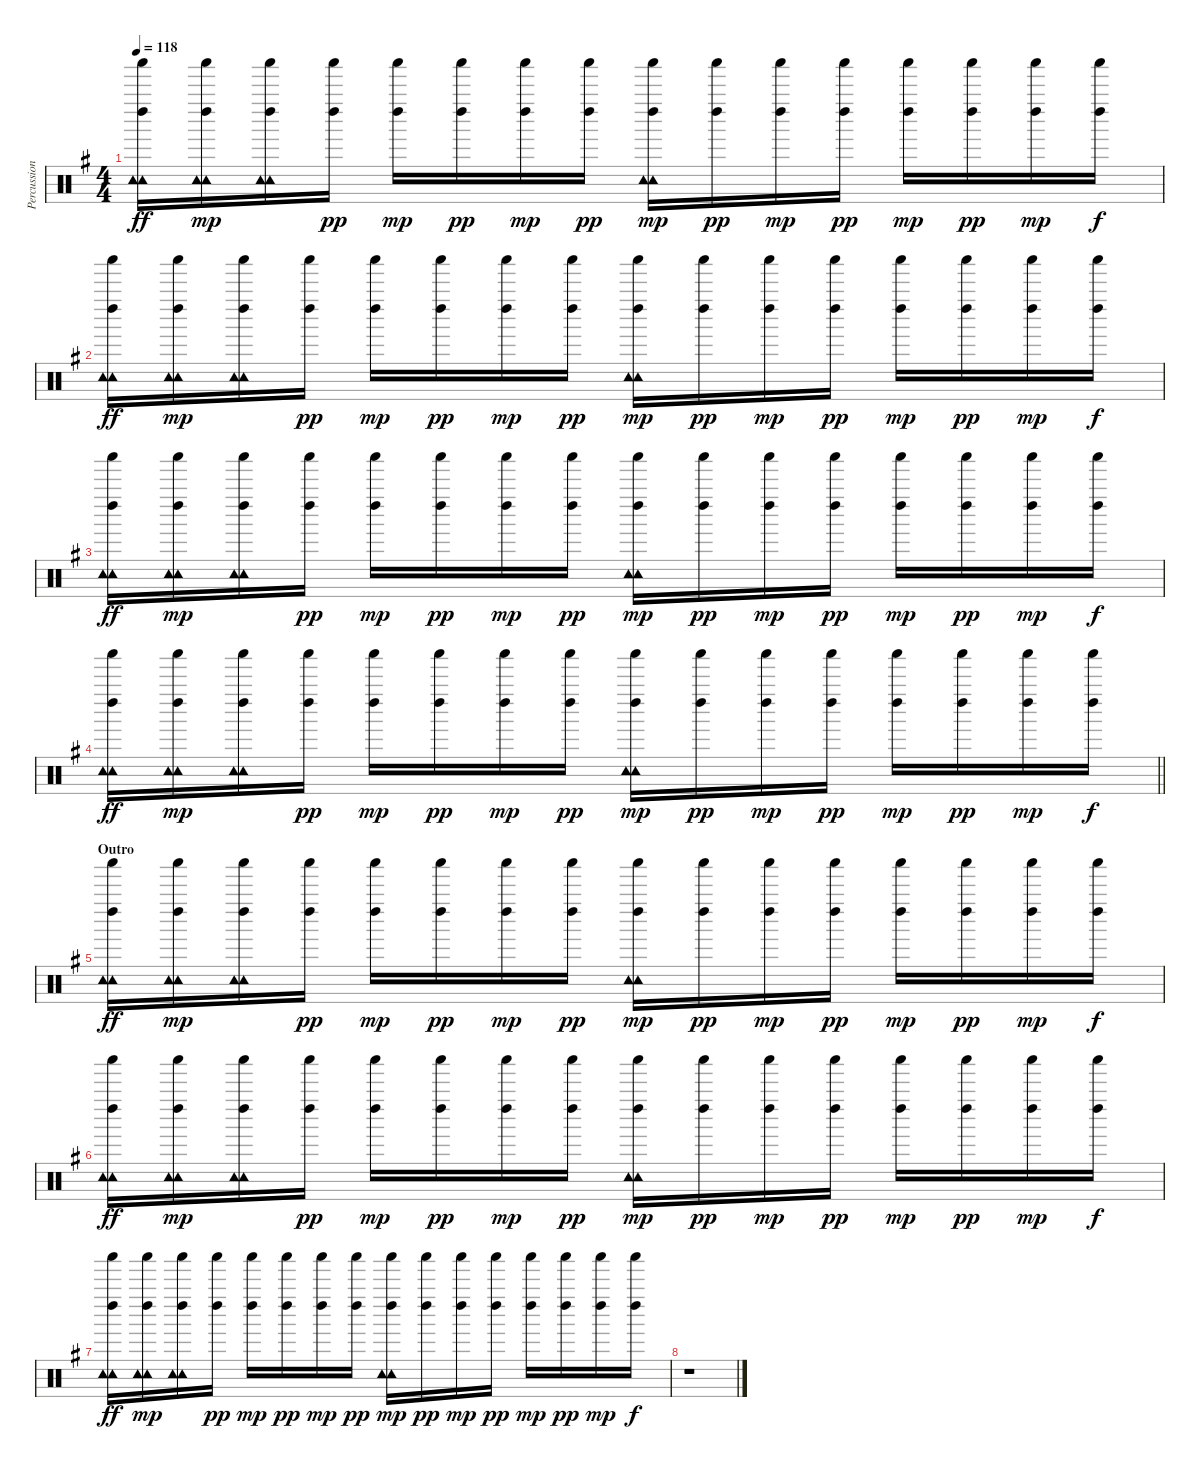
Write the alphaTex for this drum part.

\track ("Percussion" "Percussion") {instrument percussion}
\staff {score}
\articulation defaults
\ts (4 4)
\tempo 118
\clef neutral
\ks g
("Tambourine (hit)" "Tambourine (hit)" "Left Maraca (hit)" "Shaker (hit)").16{dy ff} ("Tambourine (hit)" "Tambourine (hit)" "Left Maraca (hit)" "Shaker (hit)").16{dy mp} ("Tambourine (hit)" "Tambourine (hit)" "Left Maraca (hit)" "Shaker (hit)").16 ("Left Maraca (hit)" "Shaker (hit)").16{dy pp} ("Left Maraca (hit)" "Shaker (hit)").16{dy mp} ("Left Maraca (hit)" "Shaker (hit)").16{dy pp} ("Left Maraca (hit)" "Shaker (hit)").16{dy mp} ("Left Maraca (hit)" "Shaker (hit)").16{dy pp} ("Tambourine (hit)" "Tambourine (hit)" "Left Maraca (hit)" "Shaker (hit)").16{dy mp} ("Left Maraca (hit)" "Shaker (hit)").16{dy pp} ("Left Maraca (hit)" "Shaker (hit)").16{dy mp} ("Left Maraca (hit)" "Shaker (hit)").16{dy pp} ("Left Maraca (hit)" "Shaker (hit)").16{dy mp} ("Left Maraca (hit)" "Shaker (hit)").16{dy pp} ("Left Maraca (hit)" "Shaker (hit)").16{dy mp} ("Left Maraca (hit)" "Shaker (hit)").16{dy f} |
("Tambourine (hit)" "Tambourine (hit)" "Left Maraca (hit)" "Shaker (hit)").16{dy ff} ("Tambourine (hit)" "Tambourine (hit)" "Left Maraca (hit)" "Shaker (hit)").16{dy mp} ("Tambourine (hit)" "Tambourine (hit)" "Left Maraca (hit)" "Shaker (hit)").16 ("Left Maraca (hit)" "Shaker (hit)").16{dy pp} ("Left Maraca (hit)" "Shaker (hit)").16{dy mp} ("Left Maraca (hit)" "Shaker (hit)").16{dy pp} ("Left Maraca (hit)" "Shaker (hit)").16{dy mp} ("Left Maraca (hit)" "Shaker (hit)").16{dy pp} ("Tambourine (hit)" "Tambourine (hit)" "Left Maraca (hit)" "Shaker (hit)").16{dy mp} ("Left Maraca (hit)" "Shaker (hit)").16{dy pp} ("Left Maraca (hit)" "Shaker (hit)").16{dy mp} ("Left Maraca (hit)" "Shaker (hit)").16{dy pp} ("Left Maraca (hit)" "Shaker (hit)").16{dy mp} ("Left Maraca (hit)" "Shaker (hit)").16{dy pp} ("Left Maraca (hit)" "Shaker (hit)").16{dy mp} ("Left Maraca (hit)" "Shaker (hit)").16{dy f} |
("Tambourine (hit)" "Tambourine (hit)" "Left Maraca (hit)" "Shaker (hit)").16{dy ff} ("Tambourine (hit)" "Tambourine (hit)" "Left Maraca (hit)" "Shaker (hit)").16{dy mp} ("Tambourine (hit)" "Tambourine (hit)" "Left Maraca (hit)" "Shaker (hit)").16 ("Left Maraca (hit)" "Shaker (hit)").16{dy pp} ("Left Maraca (hit)" "Shaker (hit)").16{dy mp} ("Left Maraca (hit)" "Shaker (hit)").16{dy pp} ("Left Maraca (hit)" "Shaker (hit)").16{dy mp} ("Left Maraca (hit)" "Shaker (hit)").16{dy pp} ("Tambourine (hit)" "Tambourine (hit)" "Left Maraca (hit)" "Shaker (hit)").16{dy mp} ("Left Maraca (hit)" "Shaker (hit)").16{dy pp} ("Left Maraca (hit)" "Shaker (hit)").16{dy mp} ("Left Maraca (hit)" "Shaker (hit)").16{dy pp} ("Left Maraca (hit)" "Shaker (hit)").16{dy mp} ("Left Maraca (hit)" "Shaker (hit)").16{dy pp} ("Left Maraca (hit)" "Shaker (hit)").16{dy mp} ("Left Maraca (hit)" "Shaker (hit)").16{dy f} |
\barLineRight lightlight
("Tambourine (hit)" "Tambourine (hit)" "Left Maraca (hit)" "Shaker (hit)").16{dy ff} ("Tambourine (hit)" "Tambourine (hit)" "Left Maraca (hit)" "Shaker (hit)").16{dy mp} ("Tambourine (hit)" "Tambourine (hit)" "Left Maraca (hit)" "Shaker (hit)").16 ("Left Maraca (hit)" "Shaker (hit)").16{dy pp} ("Left Maraca (hit)" "Shaker (hit)").16{dy mp} ("Left Maraca (hit)" "Shaker (hit)").16{dy pp} ("Left Maraca (hit)" "Shaker (hit)").16{dy mp} ("Left Maraca (hit)" "Shaker (hit)").16{dy pp} ("Tambourine (hit)" "Tambourine (hit)" "Left Maraca (hit)" "Shaker (hit)").16{dy mp} ("Left Maraca (hit)" "Shaker (hit)").16{dy pp} ("Left Maraca (hit)" "Shaker (hit)").16{dy mp} ("Left Maraca (hit)" "Shaker (hit)").16{dy pp} ("Left Maraca (hit)" "Shaker (hit)").16{dy mp} ("Left Maraca (hit)" "Shaker (hit)").16{dy pp} ("Left Maraca (hit)" "Shaker (hit)").16{dy mp} ("Left Maraca (hit)" "Shaker (hit)").16{dy f} |
\section ("" "Outro")
("Tambourine (hit)" "Tambourine (hit)" "Left Maraca (hit)" "Shaker (hit)").16{dy ff} ("Tambourine (hit)" "Tambourine (hit)" "Left Maraca (hit)" "Shaker (hit)").16{dy mp} ("Tambourine (hit)" "Tambourine (hit)" "Left Maraca (hit)" "Shaker (hit)").16 ("Left Maraca (hit)" "Shaker (hit)").16{dy pp} ("Left Maraca (hit)" "Shaker (hit)").16{dy mp} ("Left Maraca (hit)" "Shaker (hit)").16{dy pp} ("Left Maraca (hit)" "Shaker (hit)").16{dy mp} ("Left Maraca (hit)" "Shaker (hit)").16{dy pp} ("Tambourine (hit)" "Tambourine (hit)" "Left Maraca (hit)" "Shaker (hit)").16{dy mp} ("Left Maraca (hit)" "Shaker (hit)").16{dy pp} ("Left Maraca (hit)" "Shaker (hit)").16{dy mp} ("Left Maraca (hit)" "Shaker (hit)").16{dy pp} ("Left Maraca (hit)" "Shaker (hit)").16{dy mp} ("Left Maraca (hit)" "Shaker (hit)").16{dy pp} ("Left Maraca (hit)" "Shaker (hit)").16{dy mp} ("Left Maraca (hit)" "Shaker (hit)").16{dy f} |
("Tambourine (hit)" "Tambourine (hit)" "Left Maraca (hit)" "Shaker (hit)").16{dy ff} ("Tambourine (hit)" "Tambourine (hit)" "Left Maraca (hit)" "Shaker (hit)").16{dy mp} ("Tambourine (hit)" "Tambourine (hit)" "Left Maraca (hit)" "Shaker (hit)").16 ("Left Maraca (hit)" "Shaker (hit)").16{dy pp} ("Left Maraca (hit)" "Shaker (hit)").16{dy mp} ("Left Maraca (hit)" "Shaker (hit)").16{dy pp} ("Left Maraca (hit)" "Shaker (hit)").16{dy mp} ("Left Maraca (hit)" "Shaker (hit)").16{dy pp} ("Tambourine (hit)" "Tambourine (hit)" "Left Maraca (hit)" "Shaker (hit)").16{dy mp} ("Left Maraca (hit)" "Shaker (hit)").16{dy pp} ("Left Maraca (hit)" "Shaker (hit)").16{dy mp} ("Left Maraca (hit)" "Shaker (hit)").16{dy pp} ("Left Maraca (hit)" "Shaker (hit)").16{dy mp} ("Left Maraca (hit)" "Shaker (hit)").16{dy pp} ("Left Maraca (hit)" "Shaker (hit)").16{dy mp} ("Left Maraca (hit)" "Shaker (hit)").16{dy f} |
("Tambourine (hit)" "Tambourine (hit)" "Left Maraca (hit)" "Shaker (hit)").16{dy ff} ("Tambourine (hit)" "Tambourine (hit)" "Left Maraca (hit)" "Shaker (hit)").16{dy mp} ("Tambourine (hit)" "Tambourine (hit)" "Left Maraca (hit)" "Shaker (hit)").16 ("Left Maraca (hit)" "Shaker (hit)").16{dy pp} ("Left Maraca (hit)" "Shaker (hit)").16{dy mp} ("Left Maraca (hit)" "Shaker (hit)").16{dy pp} ("Left Maraca (hit)" "Shaker (hit)").16{dy mp} ("Left Maraca (hit)" "Shaker (hit)").16{dy pp} ("Tambourine (hit)" "Tambourine (hit)" "Left Maraca (hit)" "Shaker (hit)").16{dy mp} ("Left Maraca (hit)" "Shaker (hit)").16{dy pp} ("Left Maraca (hit)" "Shaker (hit)").16{dy mp} ("Left Maraca (hit)" "Shaker (hit)").16{dy pp} ("Left Maraca (hit)" "Shaker (hit)").16{dy mp} ("Left Maraca (hit)" "Shaker (hit)").16{dy pp} ("Left Maraca (hit)" "Shaker (hit)").16{dy mp} ("Left Maraca (hit)" "Shaker (hit)").16{dy f} |
r.1
